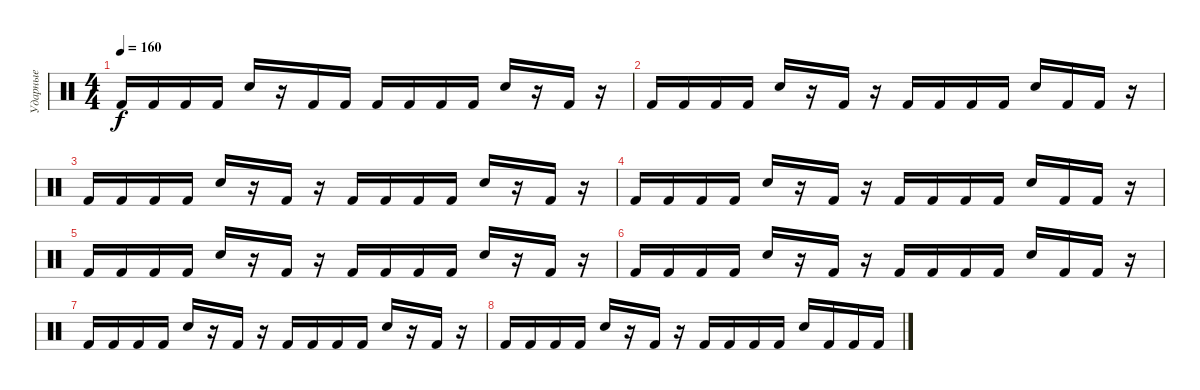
\track ("Ударные" "Ударные") {instrument percussion}
\staff {score}
\articulation defaults
\ts (4 4)
\tempo 160
\clef neutral
\ks c "Kick (hit) 2".16{dy f} "Kick (hit) 2".16 "Kick (hit) 2".16 "Kick (hit) 2".16 "Electric Snare (hit)".16
r.16 "Kick (hit) 2".16 "Kick (hit) 2".16 "Kick (hit) 2".16 "Kick (hit) 2".16 "Kick (hit) 2".16 "Kick (hit) 2".16 "Electric Snare (hit)".16 r.16 "Kick (hit) 2".16 r.16 |
"Kick (hit) 2".16 "Kick (hit) 2".16 "Kick (hit) 2".16 "Kick (hit) 2".16 "Electric Snare (hit)".16 r.16 "Kick (hit) 2".16 r.16 "Kick (hit) 2".16 "Kick (hit) 2".16 "Kick (hit) 2".16 "Kick (hit) 2".16 "Electric Snare (hit)".16 "Kick (hit) 2".16 "Kick (hit) 2".16 r.16 |
"Kick (hit) 2".16 "Kick (hit) 2".16 "Kick (hit) 2".16 "Kick (hit) 2".16 "Electric Snare (hit)".16 r.16 "Kick (hit) 2".16 r.16 "Kick (hit) 2".16 "Kick (hit) 2".16 "Kick (hit) 2".16 "Kick (hit) 2".16 "Electric Snare (hit)".16 r.16 "Kick (hit) 2".16 r.16 |
"Kick (hit) 2".16 "Kick (hit) 2".16 "Kick (hit) 2".16 "Kick (hit) 2".16 "Electric Snare (hit)".16 r.16 "Kick (hit) 2".16 r.16 "Kick (hit) 2".16 "Kick (hit) 2".16 "Kick (hit) 2".16 "Kick (hit) 2".16 "Electric Snare (hit)".16 "Kick (hit) 2".16 "Kick (hit) 2".16 r.16 |
"Kick (hit) 2".16 "Kick (hit) 2".16 "Kick (hit) 2".16 "Kick (hit) 2".16 "Electric Snare (hit)".16 r.16 "Kick (hit) 2".16 r.16 "Kick (hit) 2".16 "Kick (hit) 2".16 "Kick (hit) 2".16 "Kick (hit) 2".16 "Electric Snare (hit)".16 r.16 "Kick (hit) 2".16 r.16 |
"Kick (hit) 2".16 "Kick (hit) 2".16 "Kick (hit) 2".16 "Kick (hit) 2".16 "Electric Snare (hit)".16 r.16 "Kick (hit) 2".16 r.16 "Kick (hit) 2".16 "Kick (hit) 2".16 "Kick (hit) 2".16 "Kick (hit) 2".16 "Electric Snare (hit)".16 "Kick (hit) 2".16 "Kick (hit) 2".16 r.16 |
"Kick (hit) 2".16 "Kick (hit) 2".16 "Kick (hit) 2".16 "Kick (hit) 2".16 "Electric Snare (hit)".16 r.16 "Kick (hit) 2".16 r.16 "Kick (hit) 2".16 "Kick (hit) 2".16 "Kick (hit) 2".16 "Kick (hit) 2".16 "Electric Snare (hit)".16 r.16 "Kick (hit) 2".16 r.16 |
"Kick (hit) 2".16 "Kick (hit) 2".16 "Kick (hit) 2".16 "Kick (hit) 2".16 "Electric Snare (hit)".16 r.16 "Kick (hit) 2".16 r.16 "Kick (hit) 2".16 "Kick (hit) 2".16 "Kick (hit) 2".16 "Kick (hit) 2".16 "Electric Snare (hit)".16 "Kick (hit) 2".16 "Kick (hit) 2".16 "Kick (hit) 2".16
